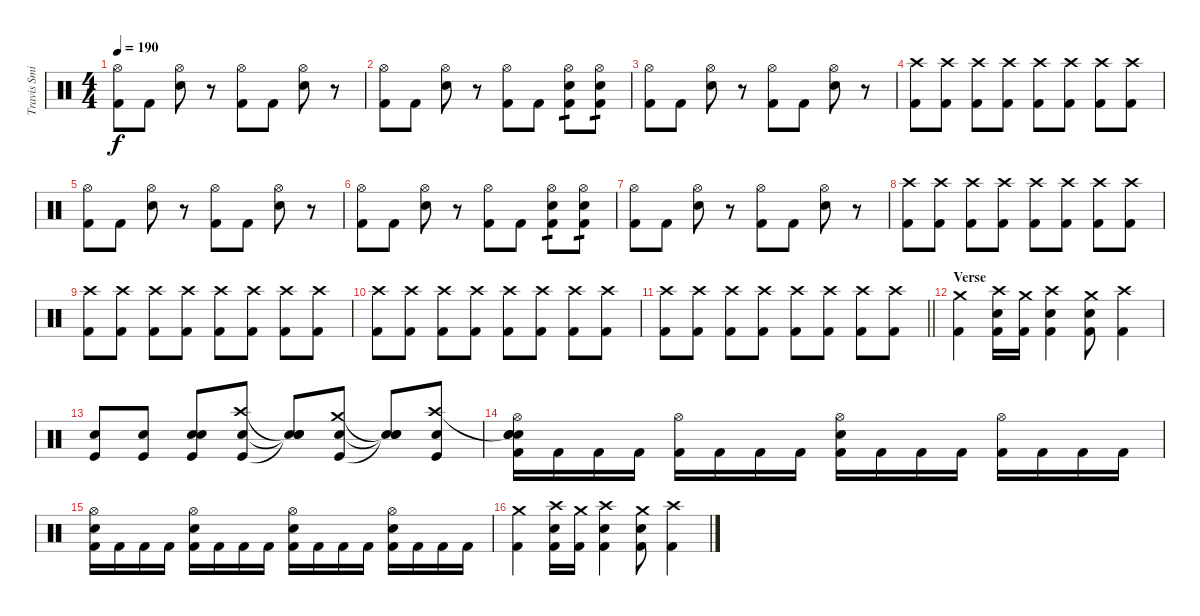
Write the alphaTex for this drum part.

\track ("Travis Smith" "Travis Smi") {instrument percussion}
\staff {score}
\articulation defaults
\ts (4 4)
\tempo 190
\clef neutral
\ks c
("Hi-Hat (open)" "Kick (hit) 2").8{dy f} "Kick (hit) 2".8 ("Hi-Hat (open)" "Electric Snare (hit)").8 r.8 ("Hi-Hat (open)" "Kick (hit) 2").8 "Kick (hit) 2".8 ("Hi-Hat (open)" "Electric Snare (hit)").8 r.8 |
("Hi-Hat (open)" "Kick (hit) 2").8 "Kick (hit) 2".8 ("Hi-Hat (open)" "Electric Snare (hit)").8 r.8 ("Hi-Hat (open)" "Kick (hit) 2").8 "Kick (hit) 2".8 ("Hi-Hat (open)" "Electric Snare (hit)" "Kick (hit) 2").8{tp 1} ("Hi-Hat (open)" "Electric Snare (hit)" "Kick (hit) 2").8{tp 1} |
("Hi-Hat (open)" "Kick (hit) 2").8 "Kick (hit) 2".8 ("Hi-Hat (open)" "Electric Snare (hit)").8 r.8 ("Hi-Hat (open)" "Kick (hit) 2").8 "Kick (hit) 2".8 ("Hi-Hat (open)" "Electric Snare (hit)").8 r.8 |
("Crash high (hit)" "Kick (hit) 2").8 ("Crash high (hit)" "Kick (hit) 2").8 ("Crash high (hit)" "Kick (hit) 2").8 ("Crash high (hit)" "Kick (hit) 2").8 ("Crash high (hit)" "Kick (hit) 2").8 ("Crash high (hit)" "Kick (hit) 2").8 ("Crash high (hit)" "Kick (hit) 2").8 ("Crash high (hit)" "Kick (hit) 2").8 |
("Hi-Hat (open)" "Kick (hit) 2").8 "Kick (hit) 2".8 ("Hi-Hat (open)" "Electric Snare (hit)").8 r.8 ("Hi-Hat (open)" "Kick (hit) 2").8 "Kick (hit) 2".8 ("Hi-Hat (open)" "Electric Snare (hit)").8 r.8 |
("Hi-Hat (open)" "Kick (hit) 2").8 "Kick (hit) 2".8 ("Hi-Hat (open)" "Electric Snare (hit)").8 r.8 ("Hi-Hat (open)" "Kick (hit) 2").8 "Kick (hit) 2".8 ("Hi-Hat (open)" "Electric Snare (hit)" "Kick (hit) 2").8{tp 1} ("Hi-Hat (open)" "Electric Snare (hit)" "Kick (hit) 2").8{tp 1} |
("Hi-Hat (open)" "Kick (hit) 2").8 "Kick (hit) 2".8 ("Hi-Hat (open)" "Electric Snare (hit)").8 r.8 ("Hi-Hat (open)" "Kick (hit) 2").8 "Kick (hit) 2".8 ("Hi-Hat (open)" "Electric Snare (hit)").8 r.8 |
("Crash high (hit)" "Kick (hit) 2").8 ("Crash high (hit)" "Kick (hit) 2").8 ("Crash high (hit)" "Kick (hit) 2").8 ("Crash high (hit)" "Kick (hit) 2").8 ("Crash high (hit)" "Kick (hit) 2").8 ("Crash high (hit)" "Kick (hit) 2").8 ("Crash high (hit)" "Kick (hit) 2").8 ("Crash high (hit)" "Kick (hit) 2").8 |
("Crash high (hit)" "Kick (hit) 2").8 ("Crash high (hit)" "Kick (hit) 2").8 ("Crash high (hit)" "Kick (hit) 2").8 ("Crash high (hit)" "Kick (hit) 2").8 ("Crash high (hit)" "Kick (hit) 2").8 ("Crash high (hit)" "Kick (hit) 2").8 ("Crash high (hit)" "Kick (hit) 2").8 ("Crash high (hit)" "Kick (hit) 2").8 |
("Crash high (hit)" "Kick (hit) 2").8 ("Crash high (hit)" "Kick (hit) 2").8 ("Crash high (hit)" "Kick (hit) 2").8 ("Crash high (hit)" "Kick (hit) 2").8 ("Crash high (hit)" "Kick (hit) 2").8 ("Crash high (hit)" "Kick (hit) 2").8 ("Crash high (hit)" "Kick (hit) 2").8 ("Crash high (hit)" "Kick (hit) 2").8 |
\barLineRight lightlight
("Crash high (hit)" "Kick (hit) 2").8 ("Crash high (hit)" "Kick (hit) 2").8 ("Crash high (hit)" "Kick (hit) 2").8 ("Crash high (hit)" "Kick (hit) 2").8 ("Crash high (hit)" "Kick (hit) 2").8 ("Crash high (hit)" "Kick (hit) 2").8 ("Crash high (hit)" "Kick (hit) 2").8 ("Crash high (hit)" "Kick (hit) 2").8 |
\section ("" "Verse")
("Crash medium (hit)" "Kick (hit) 2").4 ("Crash high (hit)" "Electric Snare (hit)" "Kick (hit) 2").16 ("Crash medium (hit)" "Kick (hit) 2").16 ("Crash high (hit)" "Electric Snare (hit)" "Kick (hit) 2").4 ("Crash medium (hit)" "Electric Snare (hit)" "Kick (hit) 2").8 ("Crash high (hit)" "Kick (hit) 2").4 |
("Snare (hit) 2" "Kick (hit)").8 ("Snare (hit) 2" "Kick (hit)").8 ("Electric Snare (hit)" "Snare (hit) 2" "Kick (hit)").8 ("Crash high (hit)" "Electric Snare (hit)" "Kick (hit)").8 ("Snare (hit)"{t} "Snare (hit)"{t} "Snare (hit)"{t}).8 ("Crash medium (hit)" "Electric Snare (hit)" "Kick (hit)").8 ("Snare (hit)"{t} "Snare (hit)"{t} "Snare (hit)"{t}).8 ("Crash high (hit)" "Electric Snare (hit)" "Kick (hit)").8 |
("Snare (hit)"{t} "Hi-Hat (open)" "Electric Snare (hit)" "Snare (hit)" "Kick (hit) 2").16 "Kick (hit) 2".16 "Kick (hit) 2".16 "Kick (hit) 2".16 ("Hi-Hat (open)" "Kick (hit) 2").16 "Kick (hit) 2".16 "Kick (hit) 2".16 "Kick (hit) 2".16 ("Hi-Hat (open)" "Electric Snare (hit)" "Kick (hit) 2").16 "Kick (hit) 2".16 "Kick (hit) 2".16 "Kick (hit) 2".16 ("Hi-Hat (open)" "Kick (hit) 2").16 "Kick (hit) 2".16 "Kick (hit) 2".16 "Kick (hit) 2".16 |
("Hi-Hat (open)" "Electric Snare (hit)" "Kick (hit) 2").16 "Kick (hit) 2".16 "Kick (hit) 2".16 "Kick (hit) 2".16 ("Hi-Hat (open)" "Electric Snare (hit)" "Kick (hit) 2").16 "Kick (hit) 2".16 "Kick (hit) 2".16 "Kick (hit) 2".16 ("Hi-Hat (open)" "Electric Snare (hit)" "Kick (hit) 2").16 "Kick (hit) 2".16 "Kick (hit) 2".16 "Kick (hit) 2".16 ("Hi-Hat (open)" "Electric Snare (hit)" "Kick (hit) 2").16 "Kick (hit) 2".16 "Kick (hit) 2".16 "Kick (hit) 2".16 |
("Crash medium (hit)" "Kick (hit) 2").4 ("Crash high (hit)" "Electric Snare (hit)" "Kick (hit) 2").16 ("Crash medium (hit)" "Kick (hit) 2").16 ("Crash high (hit)" "Electric Snare (hit)" "Kick (hit) 2").4 ("Crash medium (hit)" "Electric Snare (hit)" "Kick (hit) 2").8 ("Crash high (hit)" "Kick (hit) 2").4
